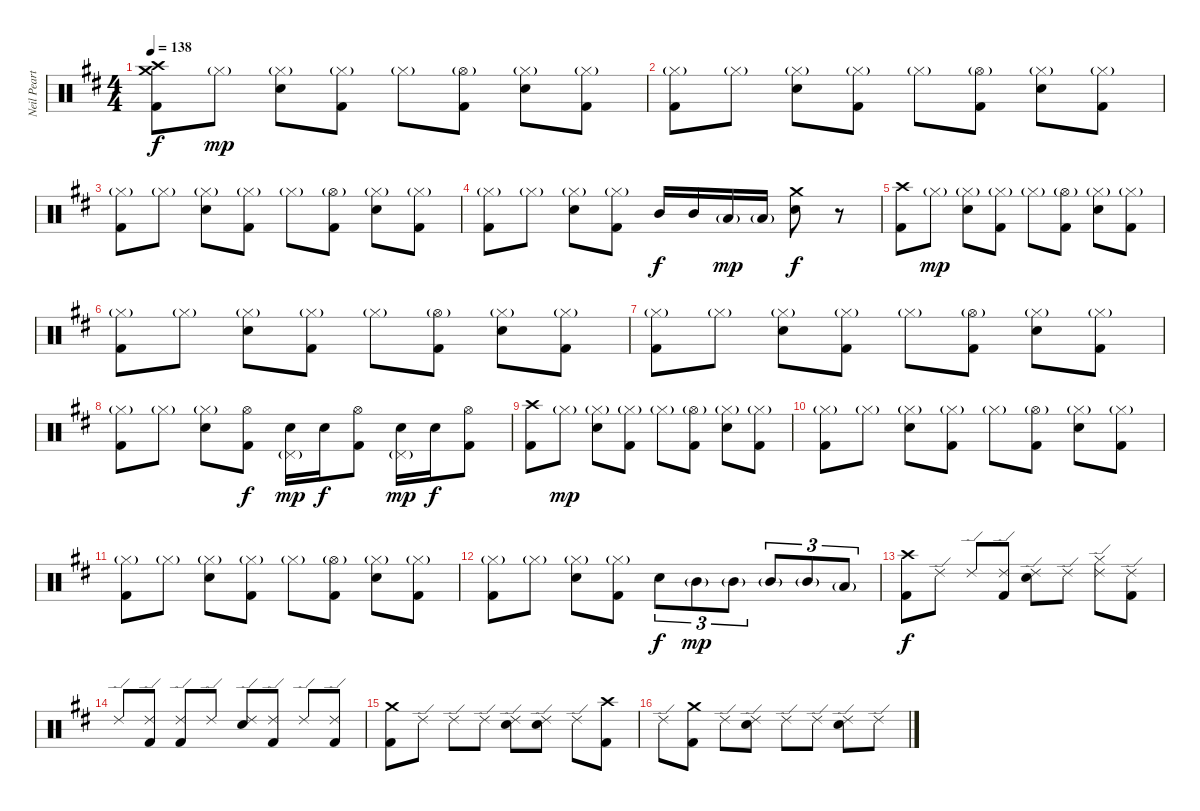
\track ("Neil Peart" "Neil Peart") {instrument percussion}
\staff {score}
\articulation defaults
\ts (4 4)
\tempo 138
\clef neutral
\ks d
("Crash high (hit)" "Crash medium (hit)" "Kick (hit) 2").8{dy f} "Hi-Hat (closed)"{g}.8{dy mp} ("Hi-Hat (closed)"{g} "Electric Snare (hit)").8 ("Hi-Hat (closed)"{g} "Kick (hit) 2").8 "Hi-Hat (closed)"{g}.8 ("Hi-Hat (open)"{g} "Kick (hit) 2").8 ("Hi-Hat (closed)"{g} "Electric Snare (hit)").8 ("Hi-Hat (closed)"{g} "Kick (hit) 2").8 |
("Hi-Hat (closed)"{g} "Kick (hit) 2").8 "Hi-Hat (closed)"{g}.8 ("Hi-Hat (closed)"{g} "Electric Snare (hit)").8 ("Hi-Hat (closed)"{g} "Kick (hit) 2").8 "Hi-Hat (closed)"{g}.8 ("Hi-Hat (open)"{g} "Kick (hit) 2").8 ("Hi-Hat (closed)"{g} "Electric Snare (hit)").8 ("Hi-Hat (closed)"{g} "Kick (hit) 2").8 |
("Hi-Hat (closed)"{g} "Kick (hit) 2").8 "Hi-Hat (closed)"{g}.8 ("Hi-Hat (closed)"{g} "Electric Snare (hit)").8 ("Hi-Hat (closed)"{g} "Kick (hit) 2").8 "Hi-Hat (closed)"{g}.8 ("Hi-Hat (open)"{g} "Kick (hit) 2").8 ("Hi-Hat (closed)"{g} "Electric Snare (hit)").8 ("Hi-Hat (closed)"{g} "Kick (hit) 2").8 |
("Hi-Hat (closed)"{g} "Kick (hit) 2").8 "Hi-Hat (closed)"{g}.8 ("Hi-Hat (closed)"{g} "Electric Snare (hit)").8 ("Hi-Hat (closed)"{g} "Kick (hit) 2").8 "Mid Tom (hit)".16{dy f} "Mid Tom (hit)".16 "Low Tom (hit)"{g}.16{dy mp} "Low Tom (hit)"{g}.16 ("Crash medium (hit)" "Electric Snare (hit)").8{dy f} r.8 |
("Crash high (hit)" "Kick (hit) 2").8 "Hi-Hat (closed)"{g}.8{dy mp} ("Hi-Hat (closed)"{g} "Electric Snare (hit)").8 ("Hi-Hat (closed)"{g} "Kick (hit) 2").8 "Hi-Hat (closed)"{g}.8 ("Hi-Hat (open)"{g} "Kick (hit) 2").8 ("Hi-Hat (closed)"{g} "Electric Snare (hit)").8 ("Hi-Hat (closed)"{g} "Kick (hit) 2").8 |
("Hi-Hat (closed)"{g} "Kick (hit) 2").8 "Hi-Hat (closed)"{g}.8 ("Hi-Hat (closed)"{g} "Electric Snare (hit)").8 ("Hi-Hat (closed)"{g} "Kick (hit) 2").8 "Hi-Hat (closed)"{g}.8 ("Hi-Hat (open)"{g} "Kick (hit) 2").8 ("Hi-Hat (closed)"{g} "Electric Snare (hit)").8 ("Hi-Hat (closed)"{g} "Kick (hit) 2").8 |
("Hi-Hat (closed)"{g} "Kick (hit) 2").8 "Hi-Hat (closed)"{g}.8 ("Hi-Hat (closed)"{g} "Electric Snare (hit)").8 ("Hi-Hat (closed)"{g} "Kick (hit) 2").8 "Hi-Hat (closed)"{g}.8 ("Hi-Hat (open)"{g} "Kick (hit) 2").8 ("Hi-Hat (closed)"{g} "Electric Snare (hit)").8 ("Hi-Hat (closed)"{g} "Kick (hit) 2").8 |
("Hi-Hat (closed)"{g} "Kick (hit) 2").8 "Hi-Hat (closed)"{g}.8 ("Hi-Hat (closed)"{g} "Electric Snare (hit)").8 ("Hi-Hat (open)" "Kick (hit) 2").8{dy f} ("Electric Snare (hit)" "Pedal Hi-Hat (hit)"{g}).16{dy mp} "Electric Snare (hit)".16{dy f} ("Hi-Hat (open)" "Kick (hit) 2").8 ("Electric Snare (hit)" "Pedal Hi-Hat (hit)"{g}).16{dy mp} "Electric Snare (hit)".16{dy f} ("Hi-Hat (open)" "Kick (hit) 2").8 |
("Crash high (hit)" "Kick (hit) 2").8 "Hi-Hat (closed)"{g}.8{dy mp} ("Hi-Hat (closed)"{g} "Electric Snare (hit)").8 ("Hi-Hat (closed)"{g} "Kick (hit) 2").8 "Hi-Hat (closed)"{g}.8 ("Hi-Hat (open)"{g} "Kick (hit) 2").8 ("Hi-Hat (closed)"{g} "Electric Snare (hit)").8 ("Hi-Hat (closed)"{g} "Kick (hit) 2").8 |
("Hi-Hat (closed)"{g} "Kick (hit) 2").8 "Hi-Hat (closed)"{g}.8 ("Hi-Hat (closed)"{g} "Electric Snare (hit)").8 ("Hi-Hat (closed)"{g} "Kick (hit) 2").8 "Hi-Hat (closed)"{g}.8 ("Hi-Hat (open)"{g} "Kick (hit) 2").8 ("Hi-Hat (closed)"{g} "Electric Snare (hit)").8 ("Hi-Hat (closed)"{g} "Kick (hit) 2").8 |
("Hi-Hat (closed)"{g} "Kick (hit) 2").8 "Hi-Hat (closed)"{g}.8 ("Hi-Hat (closed)"{g} "Electric Snare (hit)").8 ("Hi-Hat (closed)"{g} "Kick (hit) 2").8 "Hi-Hat (closed)"{g}.8 ("Hi-Hat (open)"{g} "Kick (hit) 2").8 ("Hi-Hat (closed)"{g} "Electric Snare (hit)").8 ("Hi-Hat (closed)"{g} "Kick (hit) 2").8 |
("Hi-Hat (closed)"{g} "Kick (hit) 2").8 "Hi-Hat (closed)"{g}.8 ("Hi-Hat (closed)"{g} "Electric Snare (hit)").8 ("Hi-Hat (closed)"{g} "Kick (hit) 2").8 "Electric Snare (hit)".8{tu (3 2) dy f} "Mid Tom (hit)"{g}.8{tu (3 2) dy mp} "Mid Tom (hit)"{g}.8{tu (3 2)} "Mid Tom (hit)"{g}.8{tu (3 2)} "Mid Tom (hit)"{g}.8{tu (3 2)} "Low Tom (hit)"{g}.8{tu (3 2)} |
("Crash high (hit)" "Kick (hit) 2").8{dy f} "Ride (edge) 2".8 "Ride (edge) 2".8 ("Ride (edge) 2" "Kick (hit) 2").8 ("Ride (edge) 2" "Electric Snare (hit)").8 "Ride (edge) 2".8 ("Ride (edge) 2" "Hi-Hat (closed)").8 ("Ride (edge) 2" "Kick (hit) 2").8 |
"Ride (edge) 2".8 ("Ride (edge) 2" "Kick (hit) 2").8 ("Ride (edge) 2" "Kick (hit) 2").8 "Ride (edge) 2".8 ("Ride (edge) 2" "Electric Snare (hit)").8 ("Ride (edge) 2" "Kick (hit) 2").8 "Ride (edge) 2".8 ("Ride (edge) 2" "Kick (hit) 2").8 |
("Crash medium (hit)" "Kick (hit) 2").8 "Ride (edge) 2".8 "Ride (edge) 2".8 "Ride (edge) 2".8 ("Ride (edge) 2" "Electric Snare (hit)").8 ("Ride (edge) 2" "Electric Snare (hit)").8 "Ride (edge) 2".8 ("Crash high (hit)" "Kick (hit) 2").8 |
"Ride (edge) 2".8 ("Crash medium (hit)" "Kick (hit) 2").8 "Ride (edge) 2".8 ("Ride (edge) 2" "Electric Snare (hit)").8 "Ride (edge) 2".8 "Ride (edge) 2".8 ("Ride (edge) 2" "Electric Snare (hit)").8 "Ride (edge) 2".8
